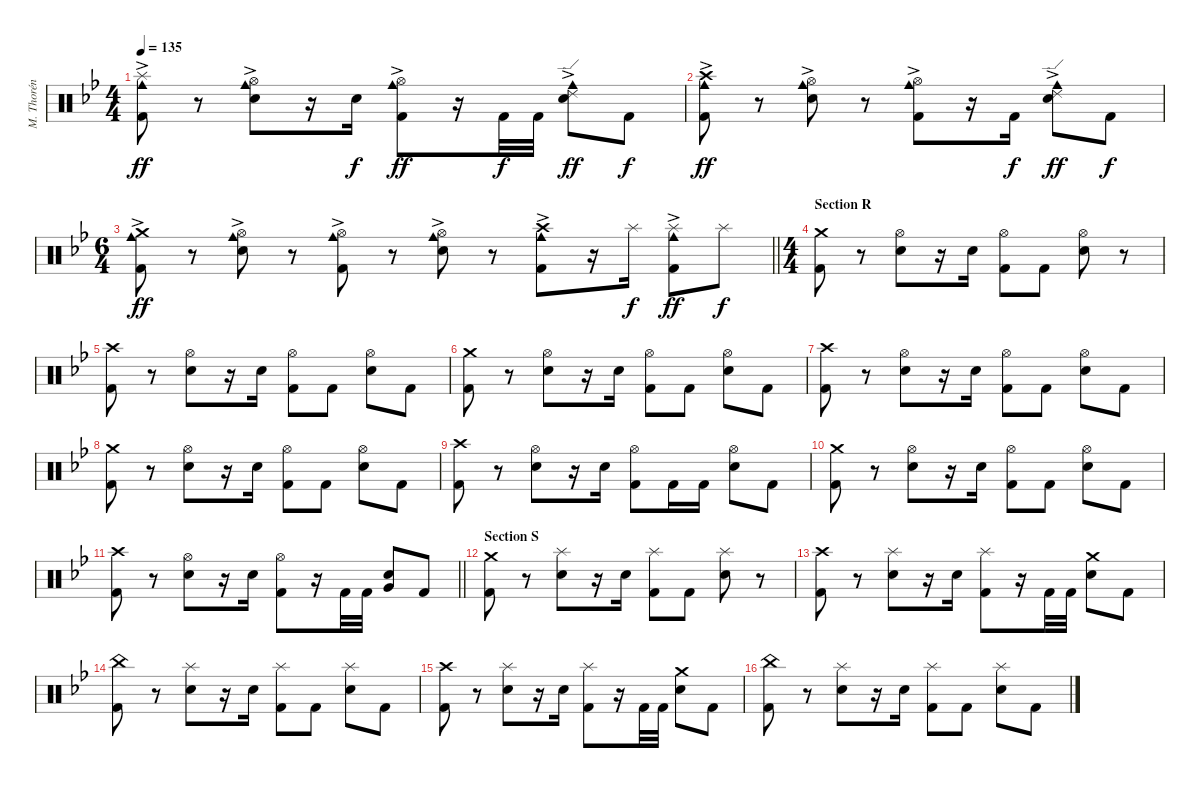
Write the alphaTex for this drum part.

\track ("M. Thorén (Drums)" "M. Thorén ") {instrument percussion}
\staff {score}
\articulation defaults
\ts (4 4)
\tempo 135
\clef neutral
\ks gminor
("Cowbell medium (hit)"{ac} "Splash (hit)" "Kick (hit) 2").8{dy ff} r.8 ("Cowbell medium (hit)"{ac} "Hi-Hat (open)" "Electric Snare (hit)").8 r.16 "Electric Snare (hit)".16{dy f} ("Cowbell medium (hit)"{ac} "Hi-Hat (open)" "Kick (hit) 2").8{dy ff} r.16 "Kick (hit) 2".32{dy f} "Kick (hit) 2".32 ("Cowbell medium (hit)"{ac} "Ride (edge) 2" "Electric Snare (hit)").8{dy ff} "Kick (hit) 2".8{dy f} |
("Cowbell medium (hit)"{ac} "Crash high (hit)" "Kick (hit) 2").8{dy ff} r.8 ("Cowbell medium (hit)"{ac} "Hi-Hat (open)" "Electric Snare (hit)").8 r.8 ("Cowbell medium (hit)"{ac} "Hi-Hat (open)" "Kick (hit) 2").8 r.16 "Kick (hit) 2".16{dy f} ("Cowbell medium (hit)"{ac} "Ride (edge) 2" "Electric Snare (hit)").8{dy ff} "Kick (hit) 2".8{dy f} |
\ts (6 4)
\barLineRight lightlight
("Cowbell medium (hit)"{ac} "Crash medium (hit)" "Kick (hit) 2").8{dy ff} r.8 ("Cowbell medium (hit)"{ac} "Hi-Hat (open)" "Electric Snare (hit)").8 r.8 ("Cowbell medium (hit)"{ac} "Hi-Hat (open)" "Kick (hit) 2").8 r.8 ("Cowbell medium (hit)"{ac} "Hi-Hat (open)" "Electric Snare (hit)").8 r.8 ("Cowbell medium (hit)"{ac} "Crash high (hit)" "Kick (hit) 2").8 r.16 "Splash (hit)".16{dy f} ("Cowbell medium (hit)"{ac} "Splash (hit)" "Kick (hit) 2").8{dy ff} "Splash (hit)".8{dy f} |
\ts (4 4)
\section ("" "Section R")
("Crash medium (hit)" "Kick (hit) 2").8 r.8 ("Hi-Hat (open)" "Electric Snare (hit)").8 r.16 "Electric Snare (hit)".16 ("Hi-Hat (open)" "Kick (hit) 2").8 "Kick (hit) 2".8 ("Hi-Hat (open)" "Electric Snare (hit)").8 r.8 |
("Crash high (hit)" "Kick (hit) 2").8 r.8 ("Hi-Hat (open)" "Electric Snare (hit)").8 r.16 "Electric Snare (hit)".16 ("Hi-Hat (open)" "Kick (hit) 2").8 "Kick (hit) 2".8 ("Hi-Hat (open)" "Electric Snare (hit)").8 "Kick (hit) 2".8 |
("Crash medium (hit)" "Kick (hit) 2").8 r.8 ("Hi-Hat (open)" "Electric Snare (hit)").8 r.16 "Electric Snare (hit)".16 ("Hi-Hat (open)" "Kick (hit) 2").8 "Kick (hit) 2".8 ("Hi-Hat (open)" "Electric Snare (hit)").8 "Kick (hit) 2".8 |
("Crash high (hit)" "Kick (hit) 2").8 r.8 ("Hi-Hat (open)" "Electric Snare (hit)").8 r.16 "Electric Snare (hit)".16 ("Hi-Hat (open)" "Kick (hit) 2").8 "Kick (hit) 2".8 ("Hi-Hat (open)" "Electric Snare (hit)").8 "Kick (hit) 2".8 |
("Crash medium (hit)" "Kick (hit) 2").8 r.8 ("Hi-Hat (open)" "Electric Snare (hit)").8 r.16 "Electric Snare (hit)".16 ("Hi-Hat (open)" "Kick (hit) 2").8 "Kick (hit) 2".8 ("Hi-Hat (open)" "Electric Snare (hit)").8 "Kick (hit) 2".8 |
("Crash high (hit)" "Kick (hit) 2").8 r.8 ("Hi-Hat (open)" "Electric Snare (hit)").8 r.16 "Electric Snare (hit)".16 ("Hi-Hat (open)" "Kick (hit) 2").8 "Kick (hit) 2".16 "Kick (hit) 2".16 ("Hi-Hat (open)" "Electric Snare (hit)").8 "Kick (hit) 2".8 |
("Crash medium (hit)" "Kick (hit) 2").8 r.8 ("Hi-Hat (open)" "Electric Snare (hit)").8 r.16 "Electric Snare (hit)".16 ("Hi-Hat (open)" "Kick (hit) 2").8 "Kick (hit) 2".8 ("Hi-Hat (open)" "Electric Snare (hit)").8 "Kick (hit) 2".8 |
\barLineRight lightlight
("Crash high (hit)" "Kick (hit) 2").8 r.8 ("Hi-Hat (open)" "Electric Snare (hit)").8 r.16 "Electric Snare (hit)".16 ("Hi-Hat (open)" "Kick (hit) 2").8 r.16 "Kick (hit) 2".32 "Kick (hit) 2".32 ("Electric Snare (hit)" "Very Low Tom (hit)").8 "Kick (hit) 2".8 |
\section ("" "Section S")
("Crash medium (hit)" "Kick (hit) 2").8 r.8 ("Splash (hit)" "Electric Snare (hit)").8 r.16 "Electric Snare (hit)".16 ("Splash (hit)" "Kick (hit) 2").8 "Kick (hit) 2".8 ("Splash (hit)" "Electric Snare (hit)").8 r.8 |
("Crash high (hit)" "Kick (hit) 2").8 r.8 ("Splash (hit)" "Electric Snare (hit)").8 r.16 "Electric Snare (hit)".16 ("Splash (hit)" "Kick (hit) 2").8 r.16 "Kick (hit) 2".32 "Kick (hit) 2".32 ("Crash medium (hit)" "Electric Snare (hit)").8 "Kick (hit) 2".8 |
("China (hit)" "Kick (hit) 2").8 r.8 ("Splash (hit)" "Electric Snare (hit)").8 r.16 "Electric Snare (hit)".16 ("Splash (hit)" "Kick (hit) 2").8 "Kick (hit) 2".8 ("Splash (hit)" "Electric Snare (hit)").8 "Kick (hit) 2".8 |
("Crash high (hit)" "Kick (hit) 2").8 r.8 ("Splash (hit)" "Electric Snare (hit)").8 r.16 "Electric Snare (hit)".16 ("Splash (hit)" "Kick (hit) 2").8 r.16 "Kick (hit) 2".32 "Kick (hit) 2".32 ("Crash medium (hit)" "Electric Snare (hit)").8 "Kick (hit) 2".8 |
("China (hit)" "Kick (hit) 2").8 r.8 ("Splash (hit)" "Electric Snare (hit)").8 r.16 "Electric Snare (hit)".16 ("Splash (hit)" "Kick (hit) 2").8 "Kick (hit) 2".8 ("Splash (hit)" "Electric Snare (hit)").8 "Kick (hit) 2".8
